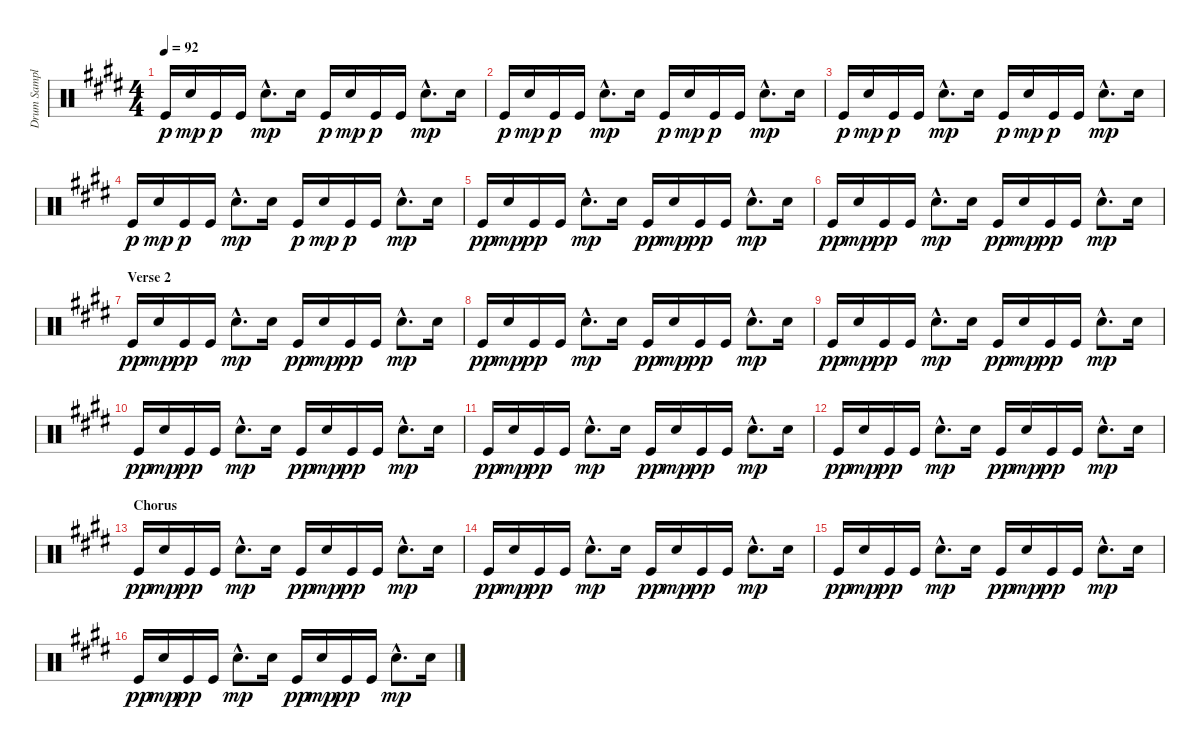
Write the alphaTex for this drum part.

\track ("Drum Sampler" "Drum Sampl") {instrument percussion}
\staff {score}
\articulation defaults
\ts (4 4)
\tempo 92
\clef neutral
\ks e "Kick (hit)".16{dy p} "Electric Snare (hit)".16{dy mp} "Kick (hit)".16{dy p} "Kick (hit)".16 "Electric Snare (hit)"{hac}.8{d dy mp} "Electric Snare (hit)".16 "Kick (hit)".16{dy p} "Electric Snare (hit)".16{dy mp} "Kick (hit)".16{dy p} "Kick (hit)".16 "Electric Snare (hit)"{hac}.8{d dy mp} "Electric Snare (hit)".16
|
"Kick (hit)".16{dy p} "Electric Snare (hit)".16{dy mp} "Kick (hit)".16{dy p} "Kick (hit)".16 "Electric Snare (hit)"{hac}.8{d dy mp} "Electric Snare (hit)".16 "Kick (hit)".16{dy p} "Electric Snare (hit)".16{dy mp} "Kick (hit)".16{dy p} "Kick (hit)".16 "Electric Snare (hit)"{hac}.8{d dy mp} "Electric Snare (hit)".16 |
"Kick (hit)".16{dy p} "Electric Snare (hit)".16{dy mp} "Kick (hit)".16{dy p} "Kick (hit)".16 "Electric Snare (hit)"{hac}.8{d dy mp} "Electric Snare (hit)".16 "Kick (hit)".16{dy p} "Electric Snare (hit)".16{dy mp} "Kick (hit)".16{dy p} "Kick (hit)".16 "Electric Snare (hit)"{hac}.8{d dy mp} "Electric Snare (hit)".16 |
"Kick (hit)".16{dy p} "Electric Snare (hit)".16{dy mp} "Kick (hit)".16{dy p} "Kick (hit)".16 "Electric Snare (hit)"{hac}.8{d dy mp} "Electric Snare (hit)".16 "Kick (hit)".16{dy p} "Electric Snare (hit)".16{dy mp} "Kick (hit)".16{dy p} "Kick (hit)".16 "Electric Snare (hit)"{hac}.8{d dy mp} "Electric Snare (hit)".16 |
"Kick (hit)".16{dy pp} "Electric Snare (hit)".16{dy mp} "Kick (hit)".16{dy pp} "Kick (hit)".16 "Electric Snare (hit)"{hac}.8{d dy mp} "Electric Snare (hit)".16 "Kick (hit)".16{dy pp} "Electric Snare (hit)".16{dy mp} "Kick (hit)".16{dy pp} "Kick (hit)".16 "Electric Snare (hit)"{hac}.8{d dy mp} "Electric Snare (hit)".16 |
"Kick (hit)".16{dy pp} "Electric Snare (hit)".16{dy mp} "Kick (hit)".16{dy pp} "Kick (hit)".16 "Electric Snare (hit)"{hac}.8{d dy mp} "Electric Snare (hit)".16 "Kick (hit)".16{dy pp} "Electric Snare (hit)".16{dy mp} "Kick (hit)".16{dy pp} "Kick (hit)".16 "Electric Snare (hit)"{hac}.8{d dy mp} "Electric Snare (hit)".16 |
\section ("" "Verse 2")
"Kick (hit)".16{dy pp} "Electric Snare (hit)".16{dy mp} "Kick (hit)".16{dy pp} "Kick (hit)".16 "Electric Snare (hit)"{hac}.8{d dy mp} "Electric Snare (hit)".16 "Kick (hit)".16{dy pp} "Electric Snare (hit)".16{dy mp} "Kick (hit)".16{dy pp} "Kick (hit)".16 "Electric Snare (hit)"{hac}.8{d dy mp} "Electric Snare (hit)".16 |
"Kick (hit)".16{dy pp} "Electric Snare (hit)".16{dy mp} "Kick (hit)".16{dy pp} "Kick (hit)".16 "Electric Snare (hit)"{hac}.8{d dy mp} "Electric Snare (hit)".16 "Kick (hit)".16{dy pp} "Electric Snare (hit)".16{dy mp} "Kick (hit)".16{dy pp} "Kick (hit)".16 "Electric Snare (hit)"{hac}.8{d dy mp} "Electric Snare (hit)".16 |
"Kick (hit)".16{dy pp} "Electric Snare (hit)".16{dy mp} "Kick (hit)".16{dy pp} "Kick (hit)".16 "Electric Snare (hit)"{hac}.8{d dy mp} "Electric Snare (hit)".16 "Kick (hit)".16{dy pp} "Electric Snare (hit)".16{dy mp} "Kick (hit)".16{dy pp} "Kick (hit)".16 "Electric Snare (hit)"{hac}.8{d dy mp} "Electric Snare (hit)".16 |
"Kick (hit)".16{dy pp} "Electric Snare (hit)".16{dy mp} "Kick (hit)".16{dy pp} "Kick (hit)".16 "Electric Snare (hit)"{hac}.8{d dy mp} "Electric Snare (hit)".16 "Kick (hit)".16{dy pp} "Electric Snare (hit)".16{dy mp} "Kick (hit)".16{dy pp} "Kick (hit)".16 "Electric Snare (hit)"{hac}.8{d dy mp} "Electric Snare (hit)".16 |
"Kick (hit)".16{dy pp} "Electric Snare (hit)".16{dy mp} "Kick (hit)".16{dy pp} "Kick (hit)".16 "Electric Snare (hit)"{hac}.8{d dy mp} "Electric Snare (hit)".16 "Kick (hit)".16{dy pp} "Electric Snare (hit)".16{dy mp} "Kick (hit)".16{dy pp} "Kick (hit)".16 "Electric Snare (hit)"{hac}.8{d dy mp} "Electric Snare (hit)".16 |
"Kick (hit)".16{dy pp} "Electric Snare (hit)".16{dy mp} "Kick (hit)".16{dy pp} "Kick (hit)".16 "Electric Snare (hit)"{hac}.8{d dy mp} "Electric Snare (hit)".16 "Kick (hit)".16{dy pp} "Electric Snare (hit)".16{dy mp} "Kick (hit)".16{dy pp} "Kick (hit)".16 "Electric Snare (hit)"{hac}.8{d dy mp} "Electric Snare (hit)".16 |
\section ("" "Chorus")
"Kick (hit)".16{dy pp} "Electric Snare (hit)".16{dy mp} "Kick (hit)".16{dy pp} "Kick (hit)".16 "Electric Snare (hit)"{hac}.8{d dy mp} "Electric Snare (hit)".16 "Kick (hit)".16{dy pp} "Electric Snare (hit)".16{dy mp} "Kick (hit)".16{dy pp} "Kick (hit)".16 "Electric Snare (hit)"{hac}.8{d dy mp} "Electric Snare (hit)".16 |
"Kick (hit)".16{dy pp} "Electric Snare (hit)".16{dy mp} "Kick (hit)".16{dy pp} "Kick (hit)".16 "Electric Snare (hit)"{hac}.8{d dy mp} "Electric Snare (hit)".16 "Kick (hit)".16{dy pp} "Electric Snare (hit)".16{dy mp} "Kick (hit)".16{dy pp} "Kick (hit)".16 "Electric Snare (hit)"{hac}.8{d dy mp} "Electric Snare (hit)".16 |
"Kick (hit)".16{dy pp} "Electric Snare (hit)".16{dy mp} "Kick (hit)".16{dy pp} "Kick (hit)".16 "Electric Snare (hit)"{hac}.8{d dy mp} "Electric Snare (hit)".16 "Kick (hit)".16{dy pp} "Electric Snare (hit)".16{dy mp} "Kick (hit)".16{dy pp} "Kick (hit)".16 "Electric Snare (hit)"{hac}.8{d dy mp} "Electric Snare (hit)".16 |
"Kick (hit)".16{dy pp} "Electric Snare (hit)".16{dy mp} "Kick (hit)".16{dy pp} "Kick (hit)".16 "Electric Snare (hit)"{hac}.8{d dy mp} "Electric Snare (hit)".16 "Kick (hit)".16{dy pp} "Electric Snare (hit)".16{dy mp} "Kick (hit)".16{dy pp} "Kick (hit)".16 "Electric Snare (hit)"{hac}.8{d dy mp} "Electric Snare (hit)".16
